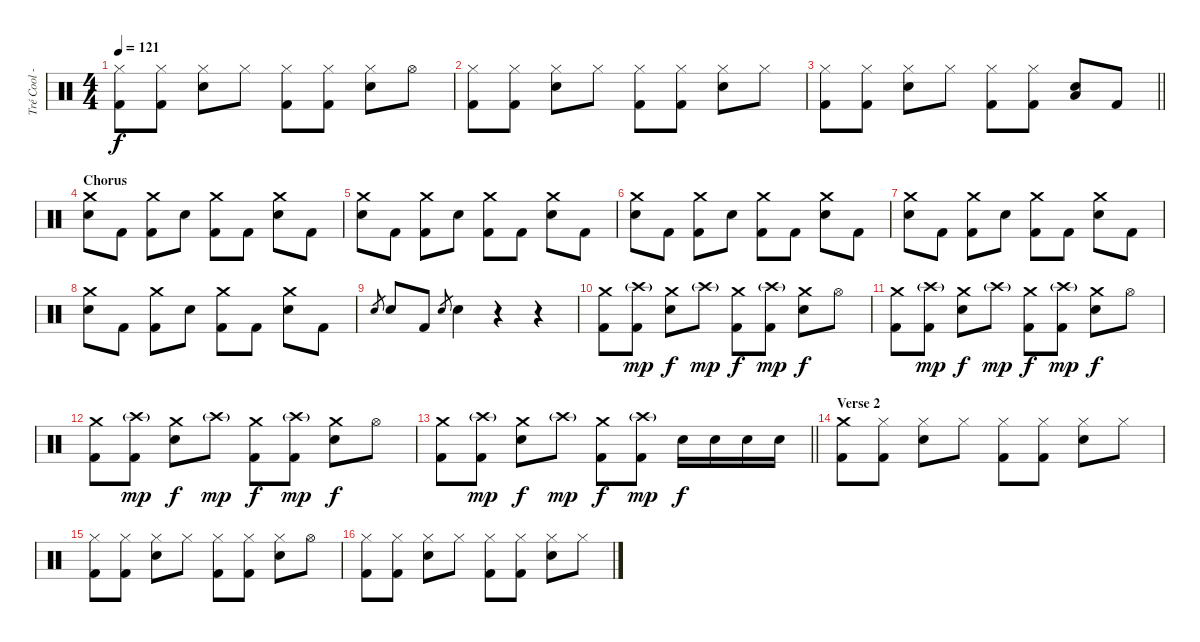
\track ("Tré Cool - Drums" "Tré Cool -") {instrument percussion}
\staff {score}
\articulation defaults
\ts (4 4)
\tempo 121
\clef neutral
\ks c
("Hi-Hat (closed)" "Kick (hit) 2").8{dy f} ("Hi-Hat (closed)" "Kick (hit) 2").8 ("Hi-Hat (closed)" "Electric Snare (hit)").8 "Hi-Hat (closed)".8 ("Hi-Hat (closed)" "Kick (hit) 2").8 ("Hi-Hat (closed)" "Kick (hit) 2").8 ("Hi-Hat (closed)" "Electric Snare (hit)").8 "Hi-Hat (open)".8 |
("Hi-Hat (closed)" "Kick (hit) 2").8 ("Hi-Hat (closed)" "Kick (hit) 2").8 ("Hi-Hat (closed)" "Electric Snare (hit)").8 "Hi-Hat (closed)".8 ("Hi-Hat (closed)" "Kick (hit) 2").8 ("Hi-Hat (closed)" "Kick (hit) 2").8 ("Hi-Hat (closed)" "Electric Snare (hit)").8 "Hi-Hat (closed)".8 |
\barLineRight lightlight
("Hi-Hat (closed)" "Kick (hit) 2").8 ("Hi-Hat (closed)" "Kick (hit) 2").8 ("Hi-Hat (closed)" "Electric Snare (hit)").8 "Hi-Hat (closed)".8 ("Hi-Hat (closed)" "Kick (hit) 2").8 ("Hi-Hat (closed)" "Kick (hit) 2").8 ("Low Tom (hit)" "Electric Snare (hit)").8 "Kick (hit) 2".8 |
\section ("" "Chorus")
("Crash medium (hit)" "Electric Snare (hit)").8 "Kick (hit) 2".8 ("Crash medium (hit)" "Kick (hit) 2").8 "Electric Snare (hit)".8 ("Crash medium (hit)" "Kick (hit) 2").8 "Kick (hit) 2".8 ("Crash medium (hit)" "Electric Snare (hit)").8 "Kick (hit) 2".8 |
("Crash medium (hit)" "Electric Snare (hit)").8 "Kick (hit) 2".8 ("Crash medium (hit)" "Kick (hit) 2").8 "Electric Snare (hit)".8 ("Crash medium (hit)" "Kick (hit) 2").8 "Kick (hit) 2".8 ("Crash medium (hit)" "Electric Snare (hit)").8 "Kick (hit) 2".8 |
("Crash medium (hit)" "Electric Snare (hit)").8 "Kick (hit) 2".8 ("Crash medium (hit)" "Kick (hit) 2").8 "Electric Snare (hit)".8 ("Crash medium (hit)" "Kick (hit) 2").8 "Kick (hit) 2".8 ("Crash medium (hit)" "Electric Snare (hit)").8 "Kick (hit) 2".8 |
("Crash medium (hit)" "Electric Snare (hit)").8 "Kick (hit) 2".8 ("Crash medium (hit)" "Kick (hit) 2").8 "Electric Snare (hit)".8 ("Crash medium (hit)" "Kick (hit) 2").8 "Kick (hit) 2".8 ("Crash medium (hit)" "Electric Snare (hit)").8 "Kick (hit) 2".8 |
("Crash medium (hit)" "Electric Snare (hit)").8 "Kick (hit) 2".8 ("Crash medium (hit)" "Kick (hit) 2").8 "Electric Snare (hit)".8 ("Crash medium (hit)" "Kick (hit) 2").8 "Kick (hit) 2".8 ("Crash medium (hit)" "Electric Snare (hit)").8 "Kick (hit) 2".8 |
"Electric Snare (hit)".8{gr} "Electric Snare (hit)".8 "Kick (hit) 2".8 "Electric Snare (hit)".8{gr} "Electric Snare (hit)".4 r.4 r.4 |
("Crash medium (hit)" "Kick (hit) 2").8 ("Crash high (hit)"{g} "Kick (hit) 2").8{dy mp} ("Crash medium (hit)" "Electric Snare (hit)").8{dy f} "Crash high (hit)"{g}.8{dy mp} ("Crash medium (hit)" "Kick (hit) 2").8{dy f} ("Crash high (hit)"{g} "Kick (hit) 2").8{dy mp} ("Crash medium (hit)" "Electric Snare (hit)").8{dy f} "Hi-Hat (open)".8 |
("Crash medium (hit)" "Kick (hit) 2").8 ("Crash high (hit)"{g} "Kick (hit) 2").8{dy mp} ("Crash medium (hit)" "Electric Snare (hit)").8{dy f} "Crash high (hit)"{g}.8{dy mp} ("Crash medium (hit)" "Kick (hit) 2").8{dy f} ("Crash high (hit)"{g} "Kick (hit) 2").8{dy mp} ("Crash medium (hit)" "Electric Snare (hit)").8{dy f} "Hi-Hat (open)".8 |
("Crash medium (hit)" "Kick (hit) 2").8 ("Crash high (hit)"{g} "Kick (hit) 2").8{dy mp} ("Crash medium (hit)" "Electric Snare (hit)").8{dy f} "Crash high (hit)"{g}.8{dy mp} ("Crash medium (hit)" "Kick (hit) 2").8{dy f} ("Crash high (hit)"{g} "Kick (hit) 2").8{dy mp} ("Crash medium (hit)" "Electric Snare (hit)").8{dy f} "Hi-Hat (open)".8 |
\barLineRight lightlight
("Crash medium (hit)" "Kick (hit) 2").8 ("Crash high (hit)"{g} "Kick (hit) 2").8{dy mp} ("Crash medium (hit)" "Electric Snare (hit)").8{dy f} "Crash high (hit)"{g}.8{dy mp} ("Crash medium (hit)" "Kick (hit) 2").8{dy f} ("Crash high (hit)"{g} "Kick (hit) 2").8{dy mp} "Electric Snare (hit)".16{dy f} "Electric Snare (hit)".16 "Electric Snare (hit)".16 "Electric Snare (hit)".16 |
\section ("" "Verse 2")
("Crash medium (hit)" "Kick (hit) 2").8{volume 14} ("Hi-Hat (closed)" "Kick (hit) 2").8 ("Hi-Hat (closed)" "Electric Snare (hit)").8 "Hi-Hat (closed)".8 ("Hi-Hat (closed)" "Kick (hit) 2").8 ("Hi-Hat (closed)" "Kick (hit) 2").8 ("Hi-Hat (closed)" "Electric Snare (hit)").8 "Hi-Hat (closed)".8 |
("Hi-Hat (closed)" "Kick (hit) 2").8 ("Hi-Hat (closed)" "Kick (hit) 2").8 ("Hi-Hat (closed)" "Electric Snare (hit)").8 "Hi-Hat (closed)".8 ("Hi-Hat (closed)" "Kick (hit) 2").8 ("Hi-Hat (closed)" "Kick (hit) 2").8 ("Hi-Hat (closed)" "Electric Snare (hit)").8 "Hi-Hat (open)".8 |
("Hi-Hat (closed)" "Kick (hit) 2").8 ("Hi-Hat (closed)" "Kick (hit) 2").8 ("Hi-Hat (closed)" "Electric Snare (hit)").8 "Hi-Hat (closed)".8 ("Hi-Hat (closed)" "Kick (hit) 2").8 ("Hi-Hat (closed)" "Kick (hit) 2").8 ("Hi-Hat (closed)" "Electric Snare (hit)").8 "Hi-Hat (closed)".8
